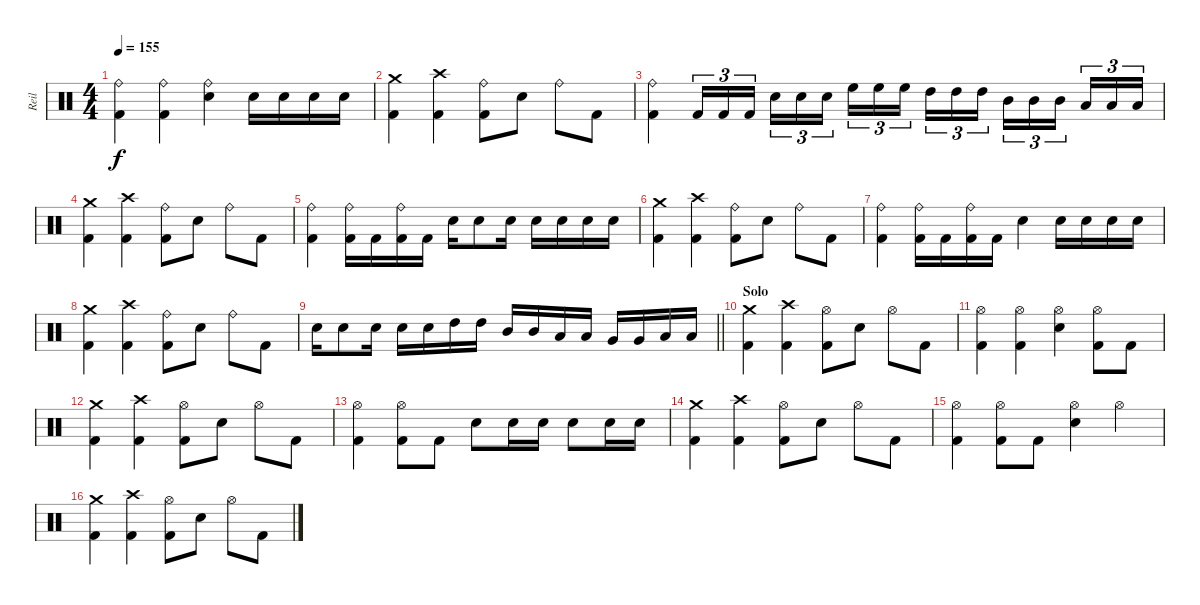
\track ("Reil" "Reil") {instrument percussion}
\staff {score}
\articulation defaults
\ts (4 4)
\tempo 155
\clef neutral
\ks c
("Ride (bell)" "Kick (hit) 2").4{dy f} ("Ride (bell)" "Kick (hit) 2").4 ("Ride (bell)" "Electric Snare (hit)").4 "Electric Snare (hit)".16 "Electric Snare (hit)".16 "Electric Snare (hit)".16 "Electric Snare (hit)".16 |
("Crash medium (hit)" "Kick (hit) 2").4 ("Crash high (hit)" "Kick (hit) 2").4 ("Ride (bell)" "Kick (hit) 2").8 "Electric Snare (hit)".8 "Ride (bell)".8 "Kick (hit) 2".8 |
("Ride (bell)" "Kick (hit) 2").4 "Kick (hit) 2".16{tu (3 2)} "Kick (hit) 2".16{tu (3 2)} "Kick (hit) 2".16{tu (3 2) beam splitsecondary} "Electric Snare (hit)".16{tu (3 2)} "Electric Snare (hit)".16{tu (3 2)} "Electric Snare (hit)".16{tu (3 2)} "High Floor Tom (hit)".16{tu (3 2)} "High Floor Tom (hit)".16{tu (3 2)} "High Floor Tom (hit)".16{tu (3 2) beam splitsecondary} "High Tom (hit)".16{tu (3 2)} "High Tom (hit)".16{tu (3 2)} "High Tom (hit)".16{tu (3 2)} "Mid Tom (hit)".16{tu (3 2)} "Mid Tom (hit)".16{tu (3 2)} "Mid Tom (hit)".16{tu (3 2) beam splitsecondary} "Low Tom (hit)".16{tu (3 2)} "Low Tom (hit)".16{tu (3 2)} "Low Tom (hit)".16{tu (3 2)} |
("Crash medium (hit)" "Kick (hit) 2").4 ("Crash high (hit)" "Kick (hit) 2").4 ("Ride (bell)" "Kick (hit) 2").8 "Electric Snare (hit)".8 "Ride (bell)".8 "Kick (hit) 2".8 |
("Ride (bell)" "Kick (hit) 2").4 ("Ride (bell)" "Kick (hit) 2").16 "Kick (hit) 2".16 ("Ride (bell)" "Kick (hit) 2").16 "Kick (hit) 2".16 "Electric Snare (hit)".16 "Electric Snare (hit)".8 "Electric Snare (hit)".16 "Electric Snare (hit)".16 "Electric Snare (hit)".16 "Electric Snare (hit)".16 "Electric Snare (hit)".16 |
("Crash medium (hit)" "Kick (hit) 2").4 ("Crash high (hit)" "Kick (hit) 2").4 ("Ride (bell)" "Kick (hit) 2").8 "Electric Snare (hit)".8 "Ride (bell)".8 "Kick (hit) 2".8 |
("Ride (bell)" "Kick (hit) 2").4 ("Ride (bell)" "Kick (hit) 2").16 "Kick (hit) 2".16 ("Ride (bell)" "Kick (hit) 2").16 "Kick (hit) 2".16 "Electric Snare (hit)".4 "Electric Snare (hit)".16 "Electric Snare (hit)".16 "Electric Snare (hit)".16 "Electric Snare (hit)".16 |
("Crash medium (hit)" "Kick (hit) 2").4 ("Crash high (hit)" "Kick (hit) 2").4 ("Ride (bell)" "Kick (hit) 2").8 "Electric Snare (hit)".8 "Ride (bell)".8 "Kick (hit) 2".8 |
\barLineRight lightlight "Electric Snare (hit)".16 "Electric Snare (hit)".8 "Electric Snare (hit)".16 "Electric Snare (hit)".16 "Electric Snare (hit)".16 "High Tom (hit)".16 "High Tom (hit)".16 "Mid Tom (hit)".16 "Mid Tom (hit)".16 "Low Tom (hit)".16 "Low Tom (hit)".16 "Very Low Tom (hit)".16 "Very Low Tom (hit)".16 "Low Floor Tom (hit)".16 "Low Floor Tom (hit)".16
|
\section ("" "Solo")
("Crash medium (hit)" "Kick (hit) 2").4 ("Crash high (hit)" "Kick (hit) 2").4 ("Hi-Hat (open)" "Kick (hit) 2").8 "Electric Snare (hit)".8 "Hi-Hat (open)".8 "Kick (hit) 2".8 |
("Hi-Hat (open)" "Kick (hit) 2").4 ("Hi-Hat (open)" "Kick (hit) 2").4 ("Hi-Hat (open)" "Electric Snare (hit)").4 ("Hi-Hat (open)" "Kick (hit) 2").8 "Kick (hit) 2".8 |
("Crash medium (hit)" "Kick (hit) 2").4 ("Crash high (hit)" "Kick (hit) 2").4 ("Hi-Hat (open)" "Kick (hit) 2").8 "Electric Snare (hit)".8 "Hi-Hat (open)".8 "Kick (hit) 2".8 |
("Hi-Hat (open)" "Kick (hit) 2").4 ("Hi-Hat (open)" "Kick (hit) 2").8 "Kick (hit) 2".8 "Electric Snare (hit)".8 "Electric Snare (hit)".16 "Electric Snare (hit)".16 "Electric Snare (hit)".8 "Electric Snare (hit)".16 "Electric Snare (hit)".16 |
("Crash medium (hit)" "Kick (hit) 2").4 ("Crash high (hit)" "Kick (hit) 2").4 ("Hi-Hat (open)" "Kick (hit) 2").8 "Electric Snare (hit)".8 "Hi-Hat (open)".8 "Kick (hit) 2".8 |
("Hi-Hat (open)" "Kick (hit) 2").4 ("Hi-Hat (open)" "Kick (hit) 2").8 "Kick (hit) 2".8 ("Hi-Hat (open)" "Electric Snare (hit)").4 "Hi-Hat (open)".4 |
("Crash medium (hit)" "Kick (hit) 2").4 ("Crash high (hit)" "Kick (hit) 2").4 ("Hi-Hat (open)" "Kick (hit) 2").8 "Electric Snare (hit)".8 "Hi-Hat (open)".8 "Kick (hit) 2".8
